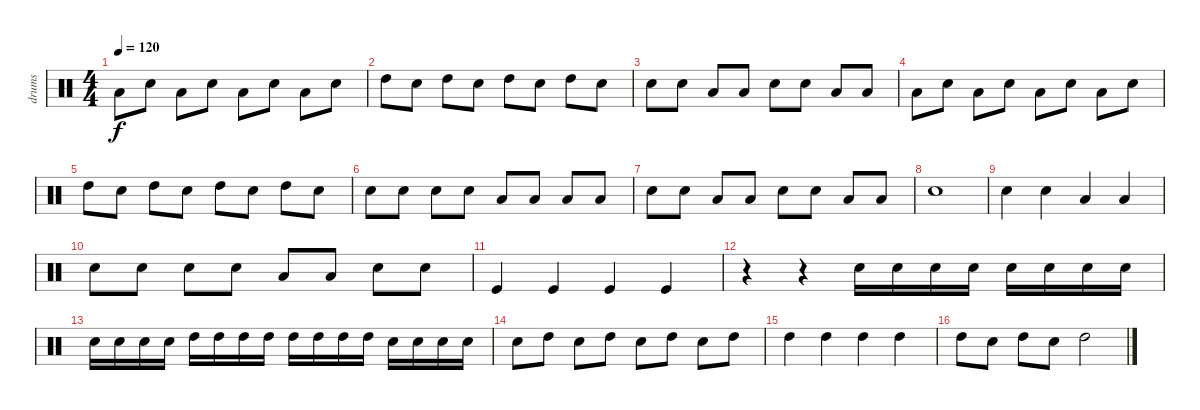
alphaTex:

\track ("drums" "drums") {instrument percussion}
\staff {score}
\articulation defaults
\ts (4 4)
\tempo 120
\clef neutral
\ks c "Low Tom (hit)".8{dy f} "Snare (hit) 2".8 "Low Tom (hit)".8 "Snare (hit) 2".8 "Low Tom (hit)".8 "Snare (hit) 2".8 "Low Tom (hit)".8 "Snare (hit) 2".8
|
"High Tom (hit)".8 "Snare (hit) 2".8 "High Tom (hit)".8 "Snare (hit) 2".8 "High Tom (hit)".8 "Snare (hit) 2".8 "High Tom (hit)".8 "Snare (hit) 2".8 |
"Snare (hit) 2".8 "Snare (hit) 2".8 "Low Tom (hit)".8 "Low Tom (hit)".8 "Snare (hit) 2".8 "Snare (hit) 2".8 "Low Tom (hit)".8 "Low Tom (hit)".8 |
"Low Tom (hit)".8 "Snare (hit) 2".8 "Low Tom (hit)".8 "Snare (hit) 2".8 "Low Tom (hit)".8 "Snare (hit) 2".8 "Low Tom (hit)".8 "Snare (hit) 2".8 |
"High Tom (hit)".8 "Snare (hit) 2".8 "High Tom (hit)".8 "Snare (hit) 2".8 "High Tom (hit)".8 "Snare (hit) 2".8 "High Tom (hit)".8 "Snare (hit) 2".8 |
"Snare (hit) 2".8 "Snare (hit) 2".8 "Snare (hit) 2".8 "Snare (hit) 2".8 "Low Tom (hit)".8 "Low Tom (hit)".8 "Low Tom (hit)".8 "Low Tom (hit)".8 |
"Snare (hit) 2".8 "Snare (hit) 2".8 "Low Tom (hit)".8 "Low Tom (hit)".8 "Snare (hit) 2".8 "Snare (hit) 2".8 "Low Tom (hit)".8 "Low Tom (hit)".8 |
"Snare (hit) 2".1 |
"Snare (hit) 2".4 "Snare (hit) 2".4 "Low Tom (hit)".4 "Low Tom (hit)".4 |
"Snare (hit) 2".8 "Snare (hit) 2".8 "Snare (hit) 2".8 "Snare (hit) 2".8 "Low Tom (hit)".8 "Low Tom (hit)".8 "Snare (hit) 2".8 "Snare (hit) 2".8 |
"Kick (hit)".4 "Kick (hit)".4 "Kick (hit)".4 "Kick (hit)".4 |
r.4 r.4 "Snare (hit) 2".16 "Snare (hit) 2".16 "Snare (hit) 2".16 "Snare (hit) 2".16 "Snare (hit) 2".16 "Snare (hit) 2".16 "Snare (hit) 2".16 "Snare (hit) 2".16 |
"Snare (hit) 2".16 "Snare (hit) 2".16 "Snare (hit) 2".16 "Snare (hit) 2".16 "High Tom (hit)".16 "High Tom (hit)".16 "High Tom (hit)".16 "High Tom (hit)".16 "High Tom (hit)".16 "High Tom (hit)".16 "High Tom (hit)".16 "High Tom (hit)".16 "Snare (hit) 2".16 "Snare (hit) 2".16 "Snare (hit) 2".16 "Snare (hit) 2".16 |
"Snare (hit) 2".8 "High Tom (hit)".8 "Snare (hit) 2".8 "High Tom (hit)".8 "Snare (hit) 2".8 "High Tom (hit)".8 "Snare (hit) 2".8 "High Tom (hit)".8 |
"High Tom (hit)".4 "High Tom (hit)".4 "High Tom (hit)".4 "High Tom (hit)".4 |
"High Tom (hit)".8 "Snare (hit) 2".8 "High Tom (hit)".8 "Snare (hit) 2".8 "High Tom (hit)".2
